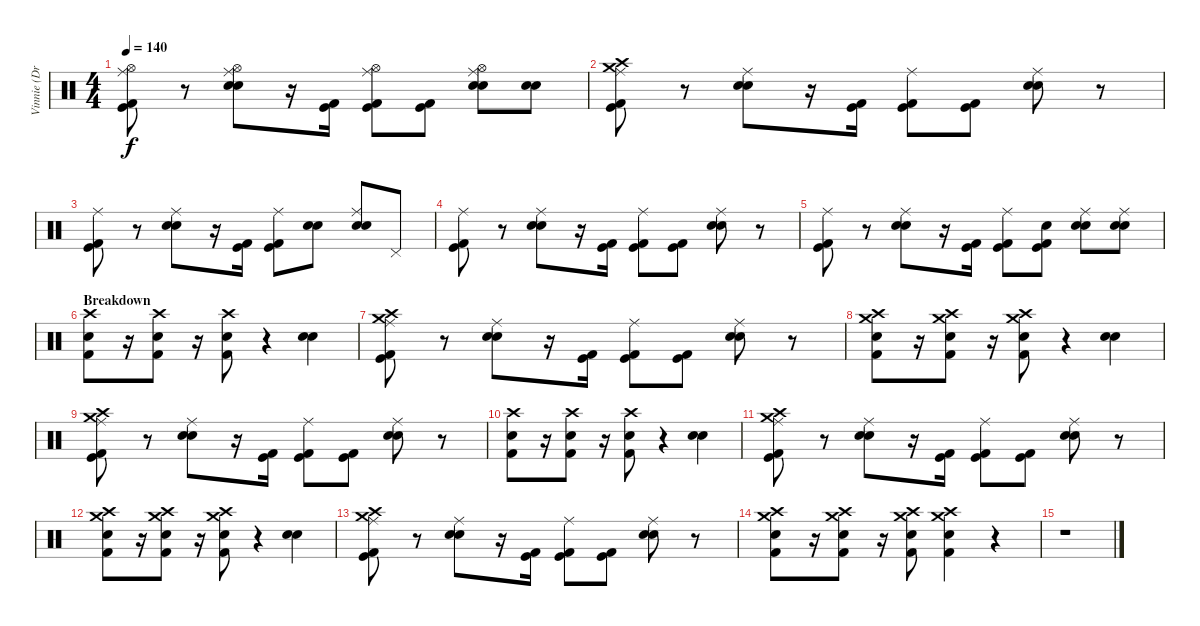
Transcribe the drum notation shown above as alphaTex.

\track ("Vinnie (Drums)" "Vinnie (Dr") {instrument percussion}
\staff {score}
\articulation defaults
\ts (4 4)
\tempo 140
\clef neutral
\ks c
("Kick (hit) 2" "Kick (hit)" "Ride (middle)" "Hi-Hat (open)").8{dy f} r.8 ("Snare (hit) 2" "Electric Snare (hit)" "Ride (middle)" "Hi-Hat (open)").8 r.16 ("Kick (hit) 2" "Kick (hit)").16 ("Kick (hit) 2" "Kick (hit)" "Ride (middle)" "Hi-Hat (open)").8 ("Kick (hit) 2" "Kick (hit)").8 ("Snare (hit) 2" "Electric Snare (hit)" "Ride (middle)" "Hi-Hat (open)").8 ("Snare (hit) 2" "Electric Snare (hit)").8 |
("Kick (hit) 2" "Kick (hit)" "Crash medium (hit)" "Ride (middle)" "Crash high (hit)").8 r.8 ("Snare (hit) 2" "Electric Snare (hit)" "Ride (middle)").8 r.16 ("Kick (hit) 2" "Kick (hit)").16 ("Kick (hit) 2" "Kick (hit)" "Ride (middle)").8 ("Kick (hit) 2" "Kick (hit)").8 ("Snare (hit) 2" "Electric Snare (hit)" "Ride (middle)").8 r.8 |
("Kick (hit) 2" "Kick (hit)" "Ride (middle)").8 r.8 ("Snare (hit) 2" "Electric Snare (hit)" "Ride (middle)").8 r.16 ("Kick (hit) 2" "Kick (hit)").16 ("Kick (hit) 2" "Kick (hit)" "Ride (middle)").8 ("Snare (hit) 2" "Electric Snare (hit)").8 ("Snare (hit) 2" "Electric Snare (hit)" "Ride (middle)").8 "Pedal Hi-Hat (hit)".8 |
("Kick (hit) 2" "Kick (hit)" "Ride (middle)").8 r.8 ("Snare (hit) 2" "Electric Snare (hit)" "Ride (middle)").8 r.16 ("Kick (hit) 2" "Kick (hit)").16 ("Kick (hit) 2" "Kick (hit)" "Ride (middle)").8 ("Kick (hit) 2" "Kick (hit)").8 ("Snare (hit) 2" "Electric Snare (hit)" "Ride (middle)").8 r.8 |
("Kick (hit) 2" "Kick (hit)" "Ride (middle)").8 r.8 ("Snare (hit) 2" "Electric Snare (hit)" "Ride (middle)").8 r.16 ("Kick (hit) 2" "Kick (hit)").16 ("Kick (hit) 2" "Kick (hit)" "Ride (middle)").8 ("Kick (hit) 2" "Kick (hit)" "Electric Snare (hit)").8 ("Snare (hit) 2" "Electric Snare (hit)" "Ride (middle)").8 ("Snare (hit) 2" "Electric Snare (hit)" "Ride (middle)").8 |
\section ("" "Breakdown")
("Kick (hit) 2" "Electric Snare (hit)" "Crash high (hit)").8 r.16 ("Kick (hit) 2" "Electric Snare (hit)" "Crash high (hit)").8 r.16 ("Kick (hit) 2" "Electric Snare (hit)" "Crash high (hit)").8 r.4 ("Snare (hit) 2" "Electric Snare (hit)").4 |
("Kick (hit) 2" "Kick (hit)" "Crash medium (hit)" "Ride (middle)" "Crash high (hit)").8 r.8 ("Snare (hit) 2" "Electric Snare (hit)" "Ride (middle)").8 r.16 ("Kick (hit) 2" "Kick (hit)").16 ("Kick (hit) 2" "Kick (hit)" "Ride (middle)").8 ("Kick (hit) 2" "Kick (hit)").8 ("Snare (hit) 2" "Electric Snare (hit)" "Ride (middle)").8 r.8 |
("Kick (hit) 2" "Electric Snare (hit)" "Crash high (hit)" "Crash medium (hit)").8 r.16 ("Kick (hit) 2" "Electric Snare (hit)" "Crash high (hit)" "Crash medium (hit)").8 r.16 ("Kick (hit) 2" "Electric Snare (hit)" "Crash high (hit)" "Crash medium (hit)").8 r.4 ("Snare (hit) 2" "Electric Snare (hit)").4 |
("Kick (hit) 2" "Kick (hit)" "Crash medium (hit)" "Ride (middle)" "Crash high (hit)").8 r.8 ("Snare (hit) 2" "Electric Snare (hit)" "Ride (middle)").8 r.16 ("Kick (hit) 2" "Kick (hit)").16 ("Kick (hit) 2" "Kick (hit)" "Ride (middle)").8 ("Kick (hit) 2" "Kick (hit)").8 ("Snare (hit) 2" "Electric Snare (hit)" "Ride (middle)").8 r.8 |
("Kick (hit) 2" "Electric Snare (hit)" "Crash high (hit)").8 r.16 ("Kick (hit) 2" "Electric Snare (hit)" "Crash high (hit)").8 r.16 ("Kick (hit) 2" "Electric Snare (hit)" "Crash high (hit)").8 r.4 ("Snare (hit) 2" "Electric Snare (hit)").4 |
("Kick (hit) 2" "Kick (hit)" "Crash medium (hit)" "Ride (middle)" "Crash high (hit)").8 r.8 ("Snare (hit) 2" "Electric Snare (hit)" "Ride (middle)").8 r.16 ("Kick (hit) 2" "Kick (hit)").16 ("Kick (hit) 2" "Kick (hit)" "Ride (middle)").8 ("Kick (hit) 2" "Kick (hit)").8 ("Snare (hit) 2" "Electric Snare (hit)" "Ride (middle)").8 r.8 |
("Kick (hit) 2" "Electric Snare (hit)" "Crash high (hit)" "Crash medium (hit)").8 r.16 ("Kick (hit) 2" "Electric Snare (hit)" "Crash high (hit)" "Crash medium (hit)").8 r.16 ("Kick (hit) 2" "Electric Snare (hit)" "Crash high (hit)" "Crash medium (hit)").8 r.4 ("Snare (hit) 2" "Electric Snare (hit)").4 |
("Kick (hit) 2" "Kick (hit)" "Crash medium (hit)" "Ride (middle)" "Crash high (hit)").8 r.8 ("Snare (hit) 2" "Electric Snare (hit)" "Ride (middle)").8 r.16 ("Kick (hit) 2" "Kick (hit)").16 ("Kick (hit) 2" "Kick (hit)" "Ride (middle)").8 ("Kick (hit) 2" "Kick (hit)").8 ("Snare (hit) 2" "Electric Snare (hit)" "Ride (middle)").8 r.8 |
("Kick (hit) 2" "Electric Snare (hit)" "Crash high (hit)" "Crash medium (hit)").8 r.16 ("Kick (hit) 2" "Electric Snare (hit)" "Crash high (hit)" "Crash medium (hit)").8 r.16 ("Kick (hit) 2" "Electric Snare (hit)" "Crash high (hit)" "Crash medium (hit)").8 ("Kick (hit) 2" "Electric Snare (hit)" "Crash high (hit)" "Crash medium (hit)").4 r.4 |
r.1
